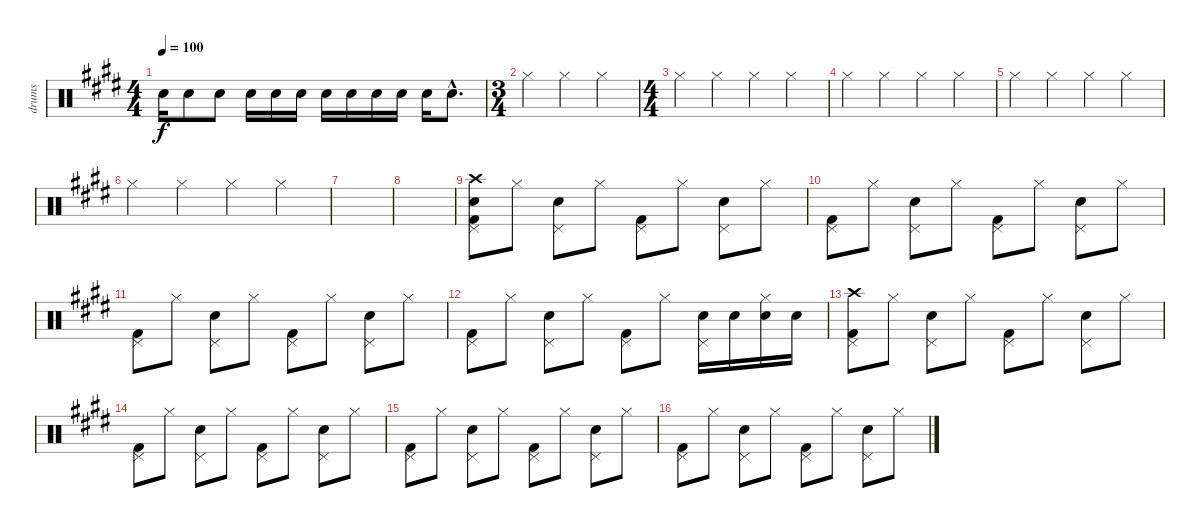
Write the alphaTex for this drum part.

\track ("drums" "drums") {instrument percussion}
\staff {score}
\articulation defaults
\ts (4 4)
\tempo 100
\clef neutral
\ks e "Snare (hit) 2".16{dy f} "Snare (hit) 2".8 "Snare (hit) 2".8 "Snare (hit) 2".16 "Snare (hit) 2".16 "Snare (hit) 2".16 "Snare (hit) 2".16 "Snare (hit) 2".16 "Snare (hit) 2".16 "Snare (hit) 2".16 "Snare (hit) 2".16 "Snare (hit) 2"{hac}.8{d}
|
\ts (3 4)
"Hi-Hat (closed)".4 "Hi-Hat (closed)".4 "Hi-Hat (closed)".4 |
\ts (4 4)
"Hi-Hat (closed)".4 "Hi-Hat (closed)".4 "Hi-Hat (closed)".4 "Hi-Hat (closed)".4 |
"Hi-Hat (closed)".4 "Hi-Hat (closed)".4 "Hi-Hat (closed)".4 "Hi-Hat (closed)".4 |
"Hi-Hat (closed)".4 "Hi-Hat (closed)".4 "Hi-Hat (closed)".4 "Hi-Hat (closed)".4 |
"Hi-Hat (closed)".4 "Hi-Hat (closed)".4 "Hi-Hat (closed)".4 "Hi-Hat (closed)".4 |
|
|
("Crash high (hit)" "Snare (hit)" "Pedal Hi-Hat (hit)" "Kick (hit) 2").8 "Hi-Hat (closed)".8 ("Snare (hit) 2" "Pedal Hi-Hat (hit)").8 "Hi-Hat (closed)".8 ("Pedal Hi-Hat (hit)" "Kick (hit) 2").8 "Hi-Hat (closed)".8 ("Snare (hit) 2" "Pedal Hi-Hat (hit)").8 "Hi-Hat (closed)".8 |
("Pedal Hi-Hat (hit)" "Kick (hit) 2").8 "Hi-Hat (closed)".8 ("Snare (hit) 2" "Pedal Hi-Hat (hit)").8 "Hi-Hat (closed)".8 ("Pedal Hi-Hat (hit)" "Kick (hit) 2").8 "Hi-Hat (closed)".8 ("Snare (hit) 2" "Pedal Hi-Hat (hit)").8 "Hi-Hat (closed)".8 |
("Pedal Hi-Hat (hit)" "Kick (hit) 2").8 "Hi-Hat (closed)".8 ("Snare (hit) 2" "Pedal Hi-Hat (hit)").8 "Hi-Hat (closed)".8 ("Pedal Hi-Hat (hit)" "Kick (hit) 2").8 "Hi-Hat (closed)".8 ("Snare (hit) 2" "Pedal Hi-Hat (hit)").8 "Hi-Hat (closed)".8 |
("Pedal Hi-Hat (hit)" "Kick (hit) 2").8 "Hi-Hat (closed)".8 ("Snare (hit) 2" "Pedal Hi-Hat (hit)").8 "Hi-Hat (closed)".8 ("Pedal Hi-Hat (hit)" "Kick (hit) 2").8 "Hi-Hat (closed)".8 ("Snare (hit) 2" "Pedal Hi-Hat (hit)").16 "Snare (hit) 2".16 ("Snare (hit) 2" "Hi-Hat (closed)").16 "Snare (hit) 2".16 |
("Crash high (hit)" "Pedal Hi-Hat (hit)" "Kick (hit) 2").8 "Hi-Hat (closed)".8 ("Snare (hit) 2" "Pedal Hi-Hat (hit)").8 "Hi-Hat (closed)".8 ("Pedal Hi-Hat (hit)" "Kick (hit) 2").8 "Hi-Hat (closed)".8 ("Snare (hit) 2" "Pedal Hi-Hat (hit)").8 "Hi-Hat (closed)".8 |
("Pedal Hi-Hat (hit)" "Kick (hit) 2").8 "Hi-Hat (closed)".8 ("Snare (hit) 2" "Pedal Hi-Hat (hit)").8 "Hi-Hat (closed)".8 ("Pedal Hi-Hat (hit)" "Kick (hit) 2").8 "Hi-Hat (closed)".8 ("Snare (hit) 2" "Pedal Hi-Hat (hit)").8 "Hi-Hat (closed)".8 |
("Pedal Hi-Hat (hit)" "Kick (hit) 2").8 "Hi-Hat (closed)".8 ("Snare (hit) 2" "Pedal Hi-Hat (hit)").8 "Hi-Hat (closed)".8 ("Pedal Hi-Hat (hit)" "Kick (hit) 2").8 "Hi-Hat (closed)".8 ("Snare (hit) 2" "Pedal Hi-Hat (hit)").8 "Hi-Hat (closed)".8 |
("Pedal Hi-Hat (hit)" "Kick (hit) 2").8 "Hi-Hat (closed)".8 ("Snare (hit) 2" "Pedal Hi-Hat (hit)").8 "Hi-Hat (closed)".8 ("Pedal Hi-Hat (hit)" "Kick (hit) 2").8 "Hi-Hat (closed)".8 ("Snare (hit) 2" "Pedal Hi-Hat (hit)").8 "Hi-Hat (closed)".8
